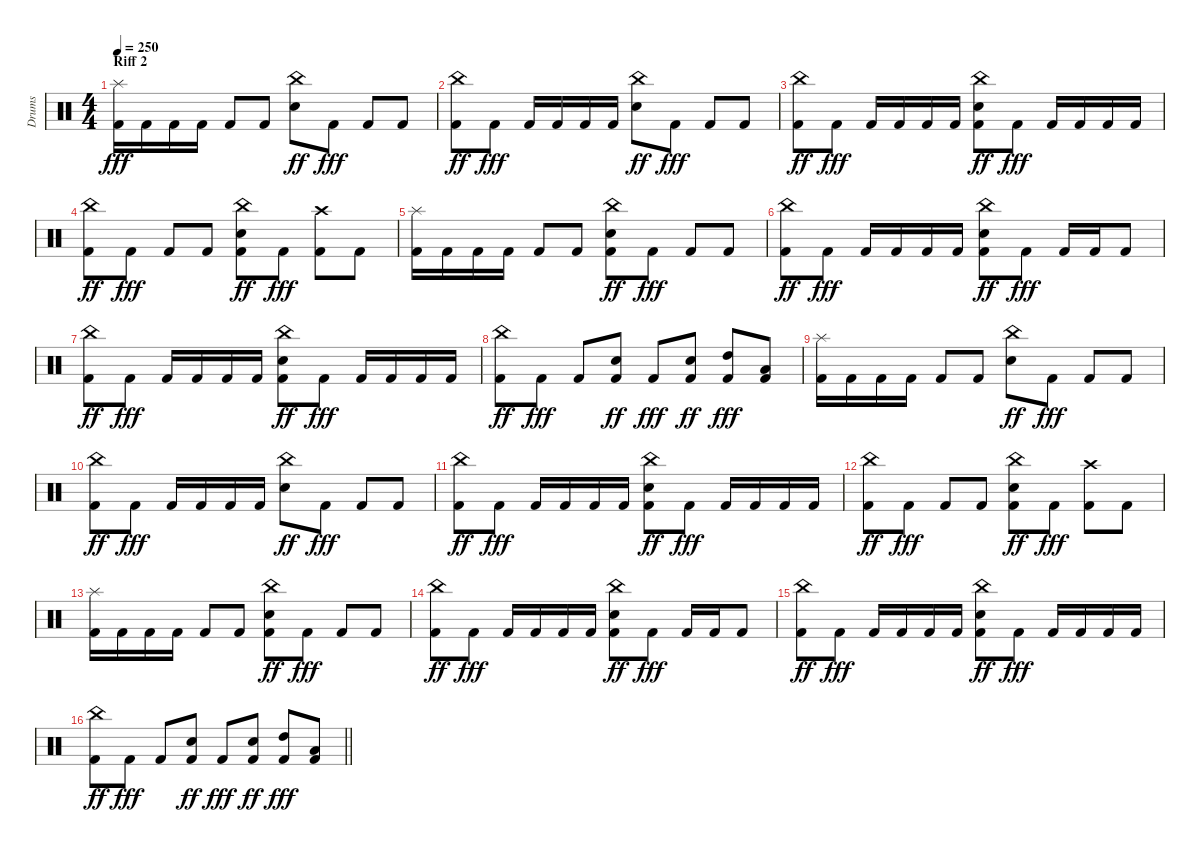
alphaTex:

\track ("Drums" "Drums") {instrument percussion}
\staff {score}
\articulation defaults
\ts (4 4)
\section ("" "Riff 2")
\tempo 250
\clef neutral
\ks c
("Kick (hit) 2" "Splash (hit)").16{dy fff} "Kick (hit) 2".16 "Kick (hit) 2".16 "Kick (hit) 2".16 "Kick (hit) 2".8 "Kick (hit) 2".8 ("Snare (hit) 2" "China (hit)").8{dy ff} "Kick (hit) 2".8{dy fff} "Kick (hit) 2".8 "Kick (hit) 2".8 |
("Kick (hit) 2" "China (hit)").8{dy ff} "Kick (hit) 2".8{dy fff} "Kick (hit) 2".16 "Kick (hit) 2".16 "Kick (hit) 2".16 "Kick (hit) 2".16 ("Snare (hit) 2" "China (hit)").8{dy ff} "Kick (hit) 2".8{dy fff} "Kick (hit) 2".8 "Kick (hit) 2".8 |
("Kick (hit) 2" "China (hit)").8{dy ff} "Kick (hit) 2".8{dy fff} "Kick (hit) 2".16 "Kick (hit) 2".16 "Kick (hit) 2".16 "Kick (hit) 2".16 ("Kick (hit) 2" "Snare (hit) 2" "China (hit)").8{dy ff} "Kick (hit) 2".8{dy fff} "Kick (hit) 2".16 "Kick (hit) 2".16 "Kick (hit) 2".16 "Kick (hit) 2".16 |
("Kick (hit) 2" "China (hit)").8{dy ff} "Kick (hit) 2".8{dy fff} "Kick (hit) 2".8 "Kick (hit) 2".8 ("Kick (hit) 2" "Snare (hit) 2" "China (hit)").8{dy ff} "Kick (hit) 2".8{dy fff} ("Kick (hit) 2" "Crash high (hit)").8 "Kick (hit) 2".8 |
("Kick (hit) 2" "Splash (hit)").16 "Kick (hit) 2".16 "Kick (hit) 2".16 "Kick (hit) 2".16 "Kick (hit) 2".8 "Kick (hit) 2".8 ("Kick (hit) 2" "Snare (hit) 2" "China (hit)").8{dy ff} "Kick (hit) 2".8{dy fff} "Kick (hit) 2".8 "Kick (hit) 2".8 |
("Kick (hit) 2" "China (hit)").8{dy ff} "Kick (hit) 2".8{dy fff} "Kick (hit) 2".16 "Kick (hit) 2".16 "Kick (hit) 2".16 "Kick (hit) 2".16 ("Kick (hit) 2" "Snare (hit) 2" "China (hit)").8{dy ff} "Kick (hit) 2".8{dy fff} "Kick (hit) 2".16 "Kick (hit) 2".16 "Kick (hit) 2".8 |
("Kick (hit) 2" "China (hit)").8{dy ff} "Kick (hit) 2".8{dy fff} "Kick (hit) 2".16 "Kick (hit) 2".16 "Kick (hit) 2".16 "Kick (hit) 2".16 ("Kick (hit) 2" "Snare (hit) 2" "China (hit)").8{dy ff} "Kick (hit) 2".8{dy fff} "Kick (hit) 2".16 "Kick (hit) 2".16 "Kick (hit) 2".16 "Kick (hit) 2".16 |
("Kick (hit) 2" "China (hit)").8{dy ff} "Kick (hit) 2".8{dy fff} "Kick (hit) 2".8 ("Kick (hit) 2" "Snare (hit) 2").8{dy ff} "Kick (hit) 2".8{dy fff} ("Kick (hit) 2" "Snare (hit) 2").8{dy ff} ("Kick (hit) 2" "High Tom (hit)").8{dy fff} ("Kick (hit) 2" "Low Tom (hit)").8 |
("Kick (hit) 2" "Splash (hit)").16 "Kick (hit) 2".16 "Kick (hit) 2".16 "Kick (hit) 2".16 "Kick (hit) 2".8 "Kick (hit) 2".8 ("Snare (hit) 2" "China (hit)").8{dy ff} "Kick (hit) 2".8{dy fff} "Kick (hit) 2".8 "Kick (hit) 2".8 |
("Kick (hit) 2" "China (hit)").8{dy ff} "Kick (hit) 2".8{dy fff} "Kick (hit) 2".16 "Kick (hit) 2".16 "Kick (hit) 2".16 "Kick (hit) 2".16 ("Snare (hit) 2" "China (hit)").8{dy ff} "Kick (hit) 2".8{dy fff} "Kick (hit) 2".8 "Kick (hit) 2".8 |
("Kick (hit) 2" "China (hit)").8{dy ff} "Kick (hit) 2".8{dy fff} "Kick (hit) 2".16 "Kick (hit) 2".16 "Kick (hit) 2".16 "Kick (hit) 2".16 ("Kick (hit) 2" "Snare (hit) 2" "China (hit)").8{dy ff} "Kick (hit) 2".8{dy fff} "Kick (hit) 2".16 "Kick (hit) 2".16 "Kick (hit) 2".16 "Kick (hit) 2".16 |
("Kick (hit) 2" "China (hit)").8{dy ff} "Kick (hit) 2".8{dy fff} "Kick (hit) 2".8 "Kick (hit) 2".8 ("Kick (hit) 2" "Snare (hit) 2" "China (hit)").8{dy ff} "Kick (hit) 2".8{dy fff} ("Kick (hit) 2" "Crash high (hit)").8 "Kick (hit) 2".8 |
("Kick (hit) 2" "Splash (hit)").16 "Kick (hit) 2".16 "Kick (hit) 2".16 "Kick (hit) 2".16 "Kick (hit) 2".8 "Kick (hit) 2".8 ("Kick (hit) 2" "Snare (hit) 2" "China (hit)").8{dy ff} "Kick (hit) 2".8{dy fff} "Kick (hit) 2".8 "Kick (hit) 2".8 |
("Kick (hit) 2" "China (hit)").8{dy ff} "Kick (hit) 2".8{dy fff} "Kick (hit) 2".16 "Kick (hit) 2".16 "Kick (hit) 2".16 "Kick (hit) 2".16 ("Kick (hit) 2" "Snare (hit) 2" "China (hit)").8{dy ff} "Kick (hit) 2".8{dy fff} "Kick (hit) 2".16 "Kick (hit) 2".16 "Kick (hit) 2".8 |
("Kick (hit) 2" "China (hit)").8{dy ff} "Kick (hit) 2".8{dy fff} "Kick (hit) 2".16 "Kick (hit) 2".16 "Kick (hit) 2".16 "Kick (hit) 2".16 ("Kick (hit) 2" "Snare (hit) 2" "China (hit)").8{dy ff} "Kick (hit) 2".8{dy fff} "Kick (hit) 2".16 "Kick (hit) 2".16 "Kick (hit) 2".16 "Kick (hit) 2".16 |
\barLineRight lightlight
("Kick (hit) 2" "China (hit)").8{dy ff} "Kick (hit) 2".8{dy fff} "Kick (hit) 2".8 ("Kick (hit) 2" "Snare (hit) 2").8{dy ff} "Kick (hit) 2".8{dy fff} ("Kick (hit) 2" "Snare (hit) 2").8{dy ff} ("Kick (hit) 2" "High Tom (hit)").8{dy fff} ("Kick (hit) 2" "Low Tom (hit)").8
